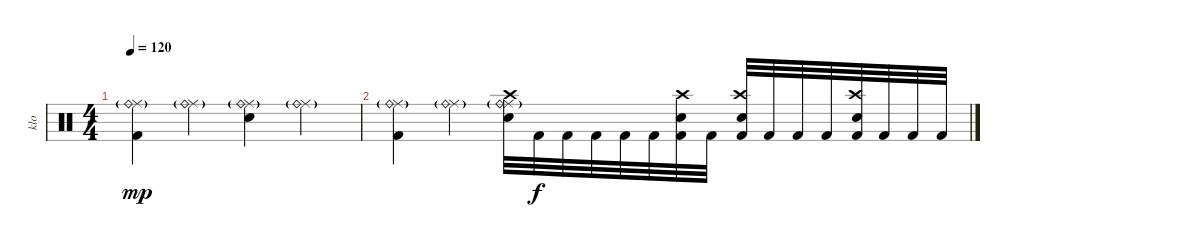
\track ("klo" "klo") {instrument percussion}
\staff
\articulation defaults
\ts (4 4)
\tempo 120
\clef neutral
\ks c
("Ride (middle)" "Ride (bell)"{g} "Kick (hit) 2").4{dy mp} ("Ride (middle)" "Ride (bell)"{g}).4 ("Ride (middle)" "Ride (bell)"{g} "Snare (hit) 2").4 ("Ride (middle)" "Ride (bell)"{g}).4 |
("Ride (middle)" "Ride (bell)"{g} "Kick (hit) 2").4 ("Ride (middle)" "Ride (bell)"{g}).4 ("Ride (middle)" "Ride (bell)"{g} "Snare (hit) 2" "Crash high (hit)").32 "Kick (hit) 2".32{dy f} "Kick (hit) 2".32 "Kick (hit) 2".32 "Kick (hit) 2".32 "Kick (hit) 2".32 ("Kick (hit) 2" "Crash high (hit)" "Electric Snare (hit)").32 "Kick (hit) 2".32 ("Kick (hit) 2" "Crash high (hit)" "Electric Snare (hit)").32 "Kick (hit) 2".32 "Kick (hit) 2".32 "Kick (hit) 2".32 ("Kick (hit) 2" "Electric Snare (hit)" "Crash high (hit)").32 "Kick (hit) 2".32 "Kick (hit) 2".32 "Kick (hit) 2".32
